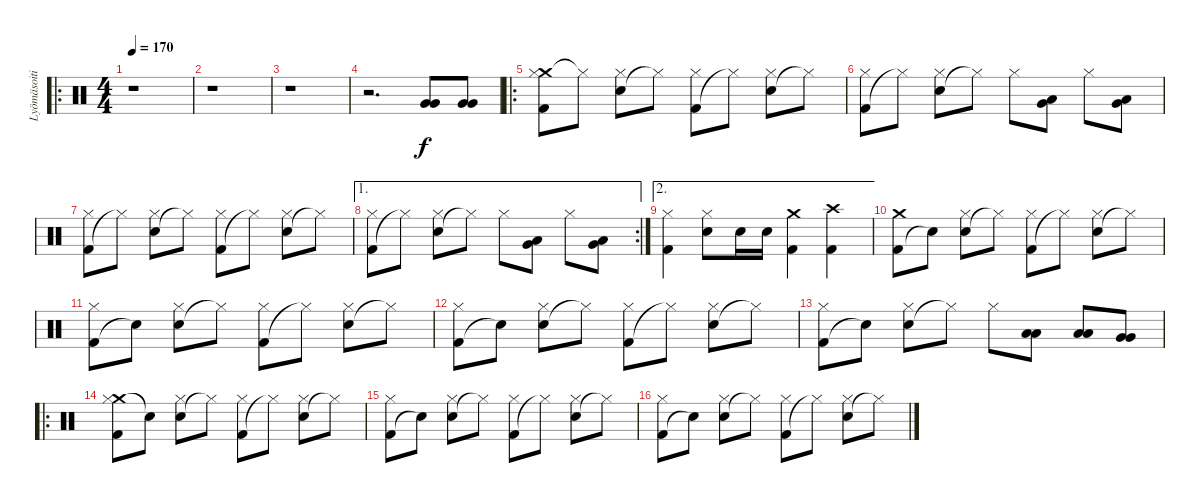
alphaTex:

\track ("Lyömäsoitin" "Lyömäsoiti") {instrument percussion}
\staff {score}
\articulation defaults
\ro
\ts (4 4)
\tempo 170
\clef neutral
\ks c
r.1{dy f} |
r.1 |
r.1 |
r.2{d} ("Very Low Tom (hit)" "Very Low Tom (hit)").8 ("Very Low Tom (hit)" "Very Low Tom (hit)").8 |
\ro
("Crash medium (hit)" "Kick (hit) 2" "Hi-Hat (closed)").8 "Hi-Hat (closed)"{t}.8 ("Electric Snare (hit)" "Hi-Hat (closed)").8 "Hi-Hat (closed)"{t}.8 ("Kick (hit) 2" "Hi-Hat (closed)").8 "Hi-Hat (closed)"{t}.8 ("Electric Snare (hit)" "Hi-Hat (closed)").8 "Hi-Hat (closed)"{t}.8 |
("Kick (hit) 2" "Hi-Hat (closed)").8 "Hi-Hat (closed)"{t}.8 ("Electric Snare (hit)" "Hi-Hat (closed)").8 "Hi-Hat (closed)"{t}.8 "Hi-Hat (closed)".8 ("Low Tom (hit)" "Very Low Tom (hit)").8 "Hi-Hat (closed)".8 ("Low Tom (hit)" "Very Low Tom (hit)").8 |
("Kick (hit) 2" "Hi-Hat (closed)").8 "Hi-Hat (closed)"{t}.8 ("Electric Snare (hit)" "Hi-Hat (closed)").8 "Hi-Hat (closed)"{t}.8 ("Kick (hit) 2" "Hi-Hat (closed)").8 "Hi-Hat (closed)"{t}.8 ("Electric Snare (hit)" "Hi-Hat (closed)").8 "Hi-Hat (closed)"{t}.8 |
\ae 1
\rc 2
("Kick (hit) 2" "Hi-Hat (closed)").8 "Hi-Hat (closed)"{t}.8 ("Electric Snare (hit)" "Hi-Hat (closed)").8 "Hi-Hat (closed)"{t}.8 "Hi-Hat (closed)".8 ("Low Tom (hit)" "Very Low Tom (hit)").8 "Hi-Hat (closed)".8 ("Low Tom (hit)" "Very Low Tom (hit)").8 |
\ae 2
("Kick (hit) 2" "Hi-Hat (closed)").4 ("Electric Snare (hit)" "Hi-Hat (closed)").8 "Electric Snare (hit)".16 "Electric Snare (hit)".16 ("Crash medium (hit)" "Kick (hit) 2").4 ("Crash high (hit)" "Kick (hit) 2").4 |
("Kick (hit) 2" "Crash medium (hit)").8 "Snare (hit)"{t}.8 ("Electric Snare (hit)" "Hi-Hat (closed)").8 "Hi-Hat (closed)"{t}.8 ("Kick (hit) 2" "Hi-Hat (closed)").8 "Hi-Hat (closed)"{t}.8 ("Electric Snare (hit)" "Hi-Hat (closed)").8 "Hi-Hat (closed)"{t}.8 |
("Kick (hit) 2" "Hi-Hat (closed)").8 "Snare (hit)"{t}.8 ("Electric Snare (hit)" "Hi-Hat (closed)").8 "Hi-Hat (closed)"{t}.8 ("Kick (hit) 2" "Hi-Hat (closed)").8 "Hi-Hat (closed)"{t}.8 ("Electric Snare (hit)" "Hi-Hat (closed)").8 "Hi-Hat (closed)"{t}.8 |
("Kick (hit) 2" "Hi-Hat (closed)").8 "Snare (hit)"{t}.8 ("Electric Snare (hit)" "Hi-Hat (closed)").8 "Hi-Hat (closed)"{t}.8 ("Kick (hit) 2" "Hi-Hat (closed)").8 "Hi-Hat (closed)"{t}.8 ("Electric Snare (hit)" "Hi-Hat (closed)").8 "Hi-Hat (closed)"{t}.8 |
("Kick (hit) 2" "Hi-Hat (closed)").8 "Snare (hit)"{t}.8 ("Electric Snare (hit)" "Hi-Hat (closed)").8 "Hi-Hat (closed)"{t}.8 "Hi-Hat (closed)".8 ("Low Tom (hit)" "Low Tom (hit)").8 ("Low Tom (hit)" "Low Tom (hit)").8 ("Very Low Tom (hit)" "Very Low Tom (hit)").8 |
\ro
("Crash medium (hit)" "Kick (hit) 2" "Hi-Hat (closed)").8 "Snare (hit)"{t}.8 ("Electric Snare (hit)" "Hi-Hat (closed)").8 "Hi-Hat (closed)"{t}.8 ("Kick (hit) 2" "Hi-Hat (closed)").8 "Hi-Hat (closed)"{t}.8 ("Electric Snare (hit)" "Hi-Hat (closed)").8 "Hi-Hat (closed)"{t}.8 |
("Kick (hit) 2" "Hi-Hat (closed)").8 "Snare (hit)"{t}.8 ("Electric Snare (hit)" "Hi-Hat (closed)").8 "Hi-Hat (closed)"{t}.8 ("Kick (hit) 2" "Hi-Hat (closed)").8 "Hi-Hat (closed)"{t}.8 ("Electric Snare (hit)" "Hi-Hat (closed)").8 "Hi-Hat (closed)"{t}.8 |
("Kick (hit) 2" "Hi-Hat (closed)").8 "Snare (hit)"{t}.8 ("Electric Snare (hit)" "Hi-Hat (closed)").8 "Hi-Hat (closed)"{t}.8 ("Kick (hit) 2" "Hi-Hat (closed)").8 "Hi-Hat (closed)"{t}.8 ("Electric Snare (hit)" "Hi-Hat (closed)").8 "Hi-Hat (closed)"{t}.8
